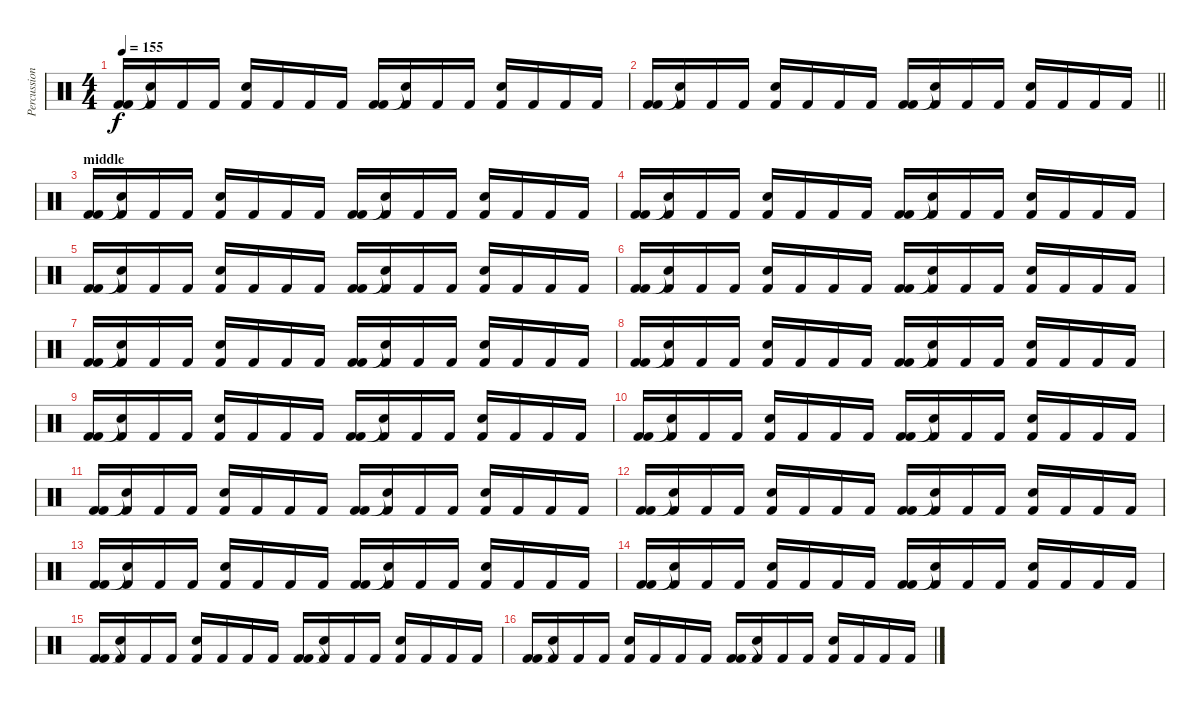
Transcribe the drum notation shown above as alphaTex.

\track ("Percussion" "Percussion") {instrument percussion}
\staff {score}
\articulation defaults
\ts (4 4)
\tempo 155
\clef neutral
\ks c
("Kick (hit) 2" "Kick (hit) 2").16{dy f} ("Kick (hit) 2" "Snare (hit)"{t}).16 "Kick (hit) 2".16 "Kick (hit) 2".16 ("Kick (hit) 2" "Snare (hit) 2").16 "Kick (hit) 2".16 "Kick (hit) 2".16 "Kick (hit) 2".16 ("Kick (hit) 2" "Kick (hit) 2").16 ("Kick (hit) 2" "Snare (hit)"{t}).16 "Kick (hit) 2".16 "Kick (hit) 2".16 ("Kick (hit) 2" "Snare (hit) 2").16 "Kick (hit) 2".16 "Kick (hit) 2".16 "Kick (hit) 2".16 |
\barLineRight lightlight
("Kick (hit) 2" "Kick (hit) 2").16 ("Kick (hit) 2" "Snare (hit)"{t}).16 "Kick (hit) 2".16 "Kick (hit) 2".16 ("Kick (hit) 2" "Snare (hit) 2").16 "Kick (hit) 2".16 "Kick (hit) 2".16 "Kick (hit) 2".16 ("Kick (hit) 2" "Kick (hit) 2").16 ("Kick (hit) 2" "Snare (hit)"{t}).16 "Kick (hit) 2".16 "Kick (hit) 2".16 ("Kick (hit) 2" "Snare (hit) 2").16 "Kick (hit) 2".16 "Kick (hit) 2".16 "Kick (hit) 2".16 |
\section ("" "middle")
("Kick (hit) 2" "Kick (hit) 2").16 ("Kick (hit) 2" "Snare (hit)"{t}).16 "Kick (hit) 2".16 "Kick (hit) 2".16 ("Kick (hit) 2" "Snare (hit) 2").16 "Kick (hit) 2".16 "Kick (hit) 2".16 "Kick (hit) 2".16 ("Kick (hit) 2" "Kick (hit) 2").16 ("Kick (hit) 2" "Snare (hit)"{t}).16 "Kick (hit) 2".16 "Kick (hit) 2".16 ("Kick (hit) 2" "Snare (hit) 2").16 "Kick (hit) 2".16 "Kick (hit) 2".16 "Kick (hit) 2".16 |
("Kick (hit) 2" "Kick (hit) 2").16 ("Kick (hit) 2" "Snare (hit)"{t}).16 "Kick (hit) 2".16 "Kick (hit) 2".16 ("Kick (hit) 2" "Snare (hit) 2").16 "Kick (hit) 2".16 "Kick (hit) 2".16 "Kick (hit) 2".16 ("Kick (hit) 2" "Kick (hit) 2").16 ("Kick (hit) 2" "Snare (hit)"{t}).16 "Kick (hit) 2".16 "Kick (hit) 2".16 ("Kick (hit) 2" "Snare (hit) 2").16 "Kick (hit) 2".16 "Kick (hit) 2".16 "Kick (hit) 2".16 |
("Kick (hit) 2" "Kick (hit) 2").16 ("Kick (hit) 2" "Snare (hit)"{t}).16 "Kick (hit) 2".16 "Kick (hit) 2".16 ("Kick (hit) 2" "Snare (hit) 2").16 "Kick (hit) 2".16 "Kick (hit) 2".16 "Kick (hit) 2".16 ("Kick (hit) 2" "Kick (hit) 2").16 ("Kick (hit) 2" "Snare (hit)"{t}).16 "Kick (hit) 2".16 "Kick (hit) 2".16 ("Kick (hit) 2" "Snare (hit) 2").16 "Kick (hit) 2".16 "Kick (hit) 2".16 "Kick (hit) 2".16 |
("Kick (hit) 2" "Kick (hit) 2").16 ("Kick (hit) 2" "Snare (hit)"{t}).16 "Kick (hit) 2".16 "Kick (hit) 2".16 ("Kick (hit) 2" "Snare (hit) 2").16 "Kick (hit) 2".16 "Kick (hit) 2".16 "Kick (hit) 2".16 ("Kick (hit) 2" "Kick (hit) 2").16 ("Kick (hit) 2" "Snare (hit)"{t}).16 "Kick (hit) 2".16 "Kick (hit) 2".16 ("Kick (hit) 2" "Snare (hit) 2").16 "Kick (hit) 2".16 "Kick (hit) 2".16 "Kick (hit) 2".16 |
("Kick (hit) 2" "Kick (hit) 2").16 ("Kick (hit) 2" "Snare (hit)"{t}).16 "Kick (hit) 2".16 "Kick (hit) 2".16 ("Kick (hit) 2" "Snare (hit) 2").16 "Kick (hit) 2".16 "Kick (hit) 2".16 "Kick (hit) 2".16 ("Kick (hit) 2" "Kick (hit) 2").16 ("Kick (hit) 2" "Snare (hit)"{t}).16 "Kick (hit) 2".16 "Kick (hit) 2".16 ("Kick (hit) 2" "Snare (hit) 2").16 "Kick (hit) 2".16 "Kick (hit) 2".16 "Kick (hit) 2".16 |
("Kick (hit) 2" "Kick (hit) 2").16 ("Kick (hit) 2" "Snare (hit)"{t}).16 "Kick (hit) 2".16 "Kick (hit) 2".16 ("Kick (hit) 2" "Snare (hit) 2").16 "Kick (hit) 2".16 "Kick (hit) 2".16 "Kick (hit) 2".16 ("Kick (hit) 2" "Kick (hit) 2").16 ("Kick (hit) 2" "Snare (hit)"{t}).16 "Kick (hit) 2".16 "Kick (hit) 2".16 ("Kick (hit) 2" "Snare (hit) 2").16 "Kick (hit) 2".16 "Kick (hit) 2".16 "Kick (hit) 2".16 |
("Kick (hit) 2" "Kick (hit) 2").16 ("Kick (hit) 2" "Snare (hit)"{t}).16 "Kick (hit) 2".16 "Kick (hit) 2".16 ("Kick (hit) 2" "Snare (hit) 2").16 "Kick (hit) 2".16 "Kick (hit) 2".16 "Kick (hit) 2".16 ("Kick (hit) 2" "Kick (hit) 2").16 ("Kick (hit) 2" "Snare (hit)"{t}).16 "Kick (hit) 2".16 "Kick (hit) 2".16 ("Kick (hit) 2" "Snare (hit) 2").16 "Kick (hit) 2".16 "Kick (hit) 2".16 "Kick (hit) 2".16 |
("Kick (hit) 2" "Kick (hit) 2").16 ("Kick (hit) 2" "Snare (hit)"{t}).16 "Kick (hit) 2".16 "Kick (hit) 2".16 ("Kick (hit) 2" "Snare (hit) 2").16 "Kick (hit) 2".16 "Kick (hit) 2".16 "Kick (hit) 2".16 ("Kick (hit) 2" "Kick (hit) 2").16 ("Kick (hit) 2" "Snare (hit)"{t}).16 "Kick (hit) 2".16 "Kick (hit) 2".16 ("Kick (hit) 2" "Snare (hit) 2").16 "Kick (hit) 2".16 "Kick (hit) 2".16 "Kick (hit) 2".16 |
("Kick (hit) 2" "Kick (hit) 2").16 ("Kick (hit) 2" "Snare (hit)"{t}).16 "Kick (hit) 2".16 "Kick (hit) 2".16 ("Kick (hit) 2" "Snare (hit) 2").16 "Kick (hit) 2".16 "Kick (hit) 2".16 "Kick (hit) 2".16 ("Kick (hit) 2" "Kick (hit) 2").16 ("Kick (hit) 2" "Snare (hit)"{t}).16 "Kick (hit) 2".16 "Kick (hit) 2".16 ("Kick (hit) 2" "Snare (hit) 2").16 "Kick (hit) 2".16 "Kick (hit) 2".16 "Kick (hit) 2".16 |
("Kick (hit) 2" "Kick (hit) 2").16 ("Kick (hit) 2" "Snare (hit)"{t}).16 "Kick (hit) 2".16 "Kick (hit) 2".16 ("Kick (hit) 2" "Snare (hit) 2").16 "Kick (hit) 2".16 "Kick (hit) 2".16 "Kick (hit) 2".16 ("Kick (hit) 2" "Kick (hit) 2").16 ("Kick (hit) 2" "Snare (hit)"{t}).16 "Kick (hit) 2".16 "Kick (hit) 2".16 ("Kick (hit) 2" "Snare (hit) 2").16 "Kick (hit) 2".16 "Kick (hit) 2".16 "Kick (hit) 2".16 |
("Kick (hit) 2" "Kick (hit) 2").16 ("Kick (hit) 2" "Snare (hit)"{t}).16 "Kick (hit) 2".16 "Kick (hit) 2".16 ("Kick (hit) 2" "Snare (hit) 2").16 "Kick (hit) 2".16 "Kick (hit) 2".16 "Kick (hit) 2".16 ("Kick (hit) 2" "Kick (hit) 2").16 ("Kick (hit) 2" "Snare (hit)"{t}).16 "Kick (hit) 2".16 "Kick (hit) 2".16 ("Kick (hit) 2" "Snare (hit) 2").16 "Kick (hit) 2".16 "Kick (hit) 2".16 "Kick (hit) 2".16 |
("Kick (hit) 2" "Kick (hit) 2").16 ("Kick (hit) 2" "Snare (hit)"{t}).16 "Kick (hit) 2".16 "Kick (hit) 2".16 ("Kick (hit) 2" "Snare (hit) 2").16 "Kick (hit) 2".16 "Kick (hit) 2".16 "Kick (hit) 2".16 ("Kick (hit) 2" "Kick (hit) 2").16 ("Kick (hit) 2" "Snare (hit)"{t}).16 "Kick (hit) 2".16 "Kick (hit) 2".16 ("Kick (hit) 2" "Snare (hit) 2").16 "Kick (hit) 2".16 "Kick (hit) 2".16 "Kick (hit) 2".16 |
("Kick (hit) 2" "Kick (hit) 2").16 ("Kick (hit) 2" "Snare (hit)"{t}).16 "Kick (hit) 2".16 "Kick (hit) 2".16 ("Kick (hit) 2" "Snare (hit) 2").16 "Kick (hit) 2".16 "Kick (hit) 2".16 "Kick (hit) 2".16 ("Kick (hit) 2" "Kick (hit) 2").16 ("Kick (hit) 2" "Snare (hit)"{t}).16 "Kick (hit) 2".16 "Kick (hit) 2".16 ("Kick (hit) 2" "Snare (hit) 2").16 "Kick (hit) 2".16 "Kick (hit) 2".16 "Kick (hit) 2".16 |
("Kick (hit) 2" "Kick (hit) 2").16 ("Kick (hit) 2" "Snare (hit)"{t}).16 "Kick (hit) 2".16 "Kick (hit) 2".16 ("Kick (hit) 2" "Snare (hit) 2").16 "Kick (hit) 2".16 "Kick (hit) 2".16 "Kick (hit) 2".16 ("Kick (hit) 2" "Kick (hit) 2").16 ("Kick (hit) 2" "Snare (hit)"{t}).16 "Kick (hit) 2".16 "Kick (hit) 2".16 ("Kick (hit) 2" "Snare (hit) 2").16 "Kick (hit) 2".16 "Kick (hit) 2".16 "Kick (hit) 2".16
